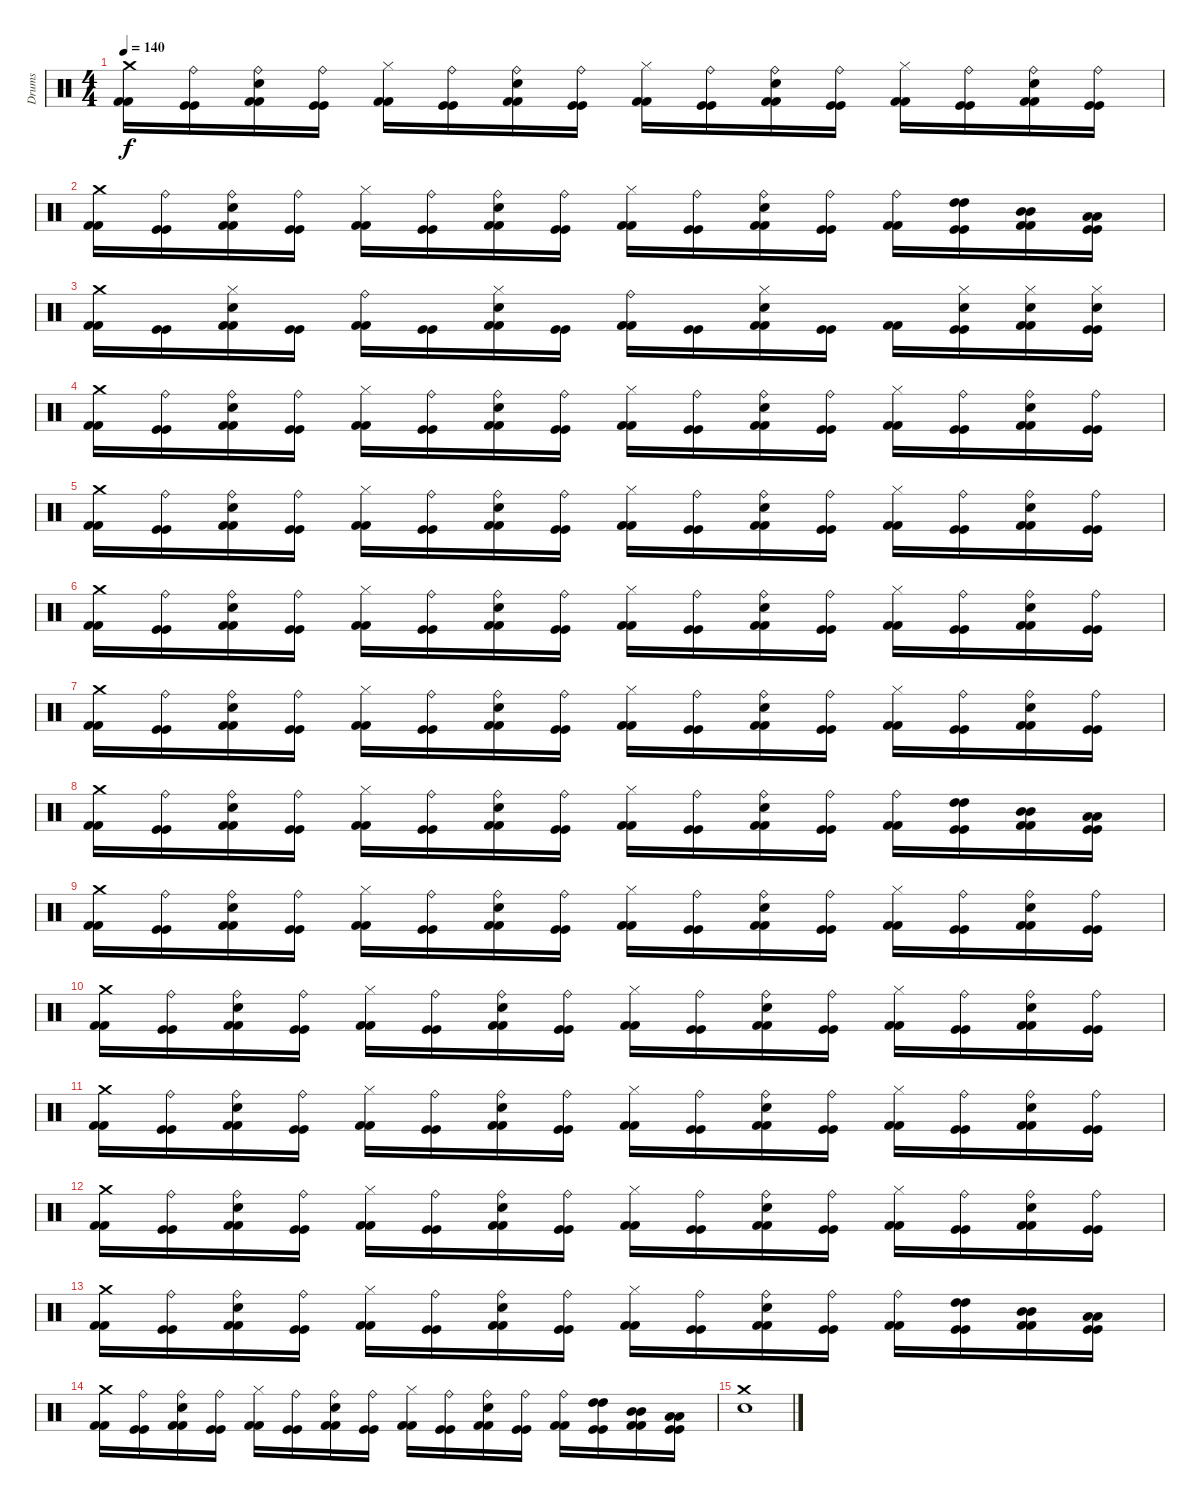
\track ("Drums" "Drums") {instrument percussion}
\staff {score}
\articulation defaults
\ts (4 4)
\tempo 140
\clef neutral
\ks c
("Crash medium (hit)" "Kick (hit) 2" "Kick (hit) 2").16{dy f} ("Ride (bell)" "Kick (hit)" "Kick (hit)").16 ("Ride (bell)" "Snare (hit) 2" "Kick (hit) 2" "Kick (hit) 2").16 ("Ride (bell)" "Kick (hit)" "Kick (hit)").16 ("Hi-Hat (closed)" "Kick (hit) 2" "Kick (hit) 2").16 ("Ride (bell)" "Kick (hit)" "Kick (hit)").16 ("Ride (bell)" "Snare (hit) 2" "Kick (hit) 2" "Kick (hit) 2").16 ("Ride (bell)" "Kick (hit)" "Kick (hit)").16 ("Hi-Hat (closed)" "Kick (hit) 2" "Kick (hit) 2").16 ("Ride (bell)" "Kick (hit)" "Kick (hit)").16 ("Ride (bell)" "Snare (hit) 2" "Kick (hit) 2" "Kick (hit) 2").16 ("Ride (bell)" "Kick (hit)" "Kick (hit)").16 ("Hi-Hat (closed)" "Kick (hit) 2" "Kick (hit) 2").16 ("Ride (bell)" "Kick (hit)" "Kick (hit)").16 ("Ride (bell)" "Snare (hit) 2" "Kick (hit) 2" "Kick (hit) 2").16 ("Ride (bell)" "Kick (hit)" "Kick (hit)").16 |
("Crash medium (hit)" "Kick (hit) 2" "Kick (hit) 2").16 ("Ride (bell)" "Kick (hit)" "Kick (hit)").16 ("Ride (bell)" "Snare (hit) 2" "Kick (hit) 2" "Kick (hit) 2").16 ("Ride (bell)" "Kick (hit)" "Kick (hit)").16 ("Hi-Hat (closed)" "Kick (hit) 2" "Kick (hit) 2").16 ("Ride (bell)" "Kick (hit)" "Kick (hit)").16 ("Ride (bell)" "Snare (hit) 2" "Kick (hit) 2" "Kick (hit) 2").16 ("Ride (bell)" "Kick (hit)" "Kick (hit)").16 ("Hi-Hat (closed)" "Kick (hit) 2" "Kick (hit) 2").16 ("Ride (bell)" "Kick (hit)" "Kick (hit)").16 ("Ride (bell)" "Snare (hit) 2" "Kick (hit) 2" "Kick (hit) 2").16 ("Ride (bell)" "Kick (hit)" "Kick (hit)").16 ("Ride (bell)" "Kick (hit) 2" "Kick (hit) 2").16 ("High Tom (hit)" "High Tom (hit)" "Kick (hit)" "Kick (hit)").16 ("Mid Tom (hit)" "Mid Tom (hit)" "Kick (hit) 2" "Kick (hit) 2").16 ("Low Tom (hit)" "Low Tom (hit)" "Kick (hit)" "Kick (hit)").16 |
("Crash medium (hit)" "Kick (hit) 2" "Kick (hit) 2").16 ("Kick (hit)" "Kick (hit)").16 ("Hi-Hat (closed)" "Snare (hit) 2" "Kick (hit) 2" "Kick (hit) 2").16 ("Kick (hit)" "Kick (hit)").16 ("Ride (bell)" "Kick (hit) 2" "Kick (hit) 2").16 ("Kick (hit)" "Kick (hit)").16 ("Hi-Hat (closed)" "Snare (hit) 2" "Kick (hit) 2" "Kick (hit) 2").16 ("Kick (hit)" "Kick (hit)").16 ("Ride (bell)" "Kick (hit) 2" "Kick (hit) 2").16 ("Kick (hit)" "Kick (hit)").16 ("Hi-Hat (closed)" "Snare (hit) 2" "Kick (hit) 2" "Kick (hit) 2").16 ("Kick (hit)" "Kick (hit)").16 ("Kick (hit) 2" "Kick (hit) 2").16 ("Hi-Hat (closed)" "Snare (hit) 2" "Kick (hit)" "Kick (hit)").16 ("Hi-Hat (closed)" "Snare (hit) 2" "Kick (hit) 2" "Kick (hit) 2").16 ("Hi-Hat (closed)" "Snare (hit) 2" "Kick (hit)" "Kick (hit)").16 |
("Crash medium (hit)" "Kick (hit) 2" "Kick (hit) 2").16 ("Ride (bell)" "Kick (hit)" "Kick (hit)").16 ("Ride (bell)" "Snare (hit) 2" "Kick (hit) 2" "Kick (hit) 2").16 ("Ride (bell)" "Kick (hit)" "Kick (hit)").16 ("Hi-Hat (closed)" "Kick (hit) 2" "Kick (hit) 2").16 ("Ride (bell)" "Kick (hit)" "Kick (hit)").16 ("Ride (bell)" "Snare (hit) 2" "Kick (hit) 2" "Kick (hit) 2").16 ("Ride (bell)" "Kick (hit)" "Kick (hit)").16 ("Hi-Hat (closed)" "Kick (hit) 2" "Kick (hit) 2").16 ("Ride (bell)" "Kick (hit)" "Kick (hit)").16 ("Ride (bell)" "Snare (hit) 2" "Kick (hit) 2" "Kick (hit) 2").16 ("Ride (bell)" "Kick (hit)" "Kick (hit)").16 ("Hi-Hat (closed)" "Kick (hit) 2" "Kick (hit) 2").16 ("Ride (bell)" "Kick (hit)" "Kick (hit)").16 ("Ride (bell)" "Snare (hit) 2" "Kick (hit) 2" "Kick (hit) 2").16 ("Ride (bell)" "Kick (hit)" "Kick (hit)").16 |
("Crash medium (hit)" "Kick (hit) 2" "Kick (hit) 2").16 ("Ride (bell)" "Kick (hit)" "Kick (hit)").16 ("Ride (bell)" "Snare (hit) 2" "Kick (hit) 2" "Kick (hit) 2").16 ("Ride (bell)" "Kick (hit)" "Kick (hit)").16 ("Hi-Hat (closed)" "Kick (hit) 2" "Kick (hit) 2").16 ("Ride (bell)" "Kick (hit)" "Kick (hit)").16 ("Ride (bell)" "Snare (hit) 2" "Kick (hit) 2" "Kick (hit) 2").16 ("Ride (bell)" "Kick (hit)" "Kick (hit)").16 ("Hi-Hat (closed)" "Kick (hit) 2" "Kick (hit) 2").16 ("Ride (bell)" "Kick (hit)" "Kick (hit)").16 ("Ride (bell)" "Snare (hit) 2" "Kick (hit) 2" "Kick (hit) 2").16 ("Ride (bell)" "Kick (hit)" "Kick (hit)").16 ("Hi-Hat (closed)" "Kick (hit) 2" "Kick (hit) 2").16 ("Ride (bell)" "Kick (hit)" "Kick (hit)").16 ("Ride (bell)" "Snare (hit) 2" "Kick (hit) 2" "Kick (hit) 2").16 ("Ride (bell)" "Kick (hit)" "Kick (hit)").16 |
("Crash medium (hit)" "Kick (hit) 2" "Kick (hit) 2").16 ("Ride (bell)" "Kick (hit)" "Kick (hit)").16 ("Ride (bell)" "Snare (hit) 2" "Kick (hit) 2" "Kick (hit) 2").16 ("Ride (bell)" "Kick (hit)" "Kick (hit)").16 ("Hi-Hat (closed)" "Kick (hit) 2" "Kick (hit) 2").16 ("Ride (bell)" "Kick (hit)" "Kick (hit)").16 ("Ride (bell)" "Snare (hit) 2" "Kick (hit) 2" "Kick (hit) 2").16 ("Ride (bell)" "Kick (hit)" "Kick (hit)").16 ("Hi-Hat (closed)" "Kick (hit) 2" "Kick (hit) 2").16 ("Ride (bell)" "Kick (hit)" "Kick (hit)").16 ("Ride (bell)" "Snare (hit) 2" "Kick (hit) 2" "Kick (hit) 2").16 ("Ride (bell)" "Kick (hit)" "Kick (hit)").16 ("Hi-Hat (closed)" "Kick (hit) 2" "Kick (hit) 2").16 ("Ride (bell)" "Kick (hit)" "Kick (hit)").16 ("Ride (bell)" "Snare (hit) 2" "Kick (hit) 2" "Kick (hit) 2").16 ("Ride (bell)" "Kick (hit)" "Kick (hit)").16 |
("Crash medium (hit)" "Kick (hit) 2" "Kick (hit) 2").16 ("Ride (bell)" "Kick (hit)" "Kick (hit)").16 ("Ride (bell)" "Snare (hit) 2" "Kick (hit) 2" "Kick (hit) 2").16 ("Ride (bell)" "Kick (hit)" "Kick (hit)").16 ("Hi-Hat (closed)" "Kick (hit) 2" "Kick (hit) 2").16 ("Ride (bell)" "Kick (hit)" "Kick (hit)").16 ("Ride (bell)" "Snare (hit) 2" "Kick (hit) 2" "Kick (hit) 2").16 ("Ride (bell)" "Kick (hit)" "Kick (hit)").16 ("Hi-Hat (closed)" "Kick (hit) 2" "Kick (hit) 2").16 ("Ride (bell)" "Kick (hit)" "Kick (hit)").16 ("Ride (bell)" "Snare (hit) 2" "Kick (hit) 2" "Kick (hit) 2").16 ("Ride (bell)" "Kick (hit)" "Kick (hit)").16 ("Hi-Hat (closed)" "Kick (hit) 2" "Kick (hit) 2").16 ("Ride (bell)" "Kick (hit)" "Kick (hit)").16 ("Ride (bell)" "Snare (hit) 2" "Kick (hit) 2" "Kick (hit) 2").16 ("Ride (bell)" "Kick (hit)" "Kick (hit)").16 |
("Crash medium (hit)" "Kick (hit) 2" "Kick (hit) 2").16 ("Ride (bell)" "Kick (hit)" "Kick (hit)").16 ("Ride (bell)" "Snare (hit) 2" "Kick (hit) 2" "Kick (hit) 2").16 ("Ride (bell)" "Kick (hit)" "Kick (hit)").16 ("Hi-Hat (closed)" "Kick (hit) 2" "Kick (hit) 2").16 ("Ride (bell)" "Kick (hit)" "Kick (hit)").16 ("Ride (bell)" "Snare (hit) 2" "Kick (hit) 2" "Kick (hit) 2").16 ("Ride (bell)" "Kick (hit)" "Kick (hit)").16 ("Hi-Hat (closed)" "Kick (hit) 2" "Kick (hit) 2").16 ("Ride (bell)" "Kick (hit)" "Kick (hit)").16 ("Ride (bell)" "Snare (hit) 2" "Kick (hit) 2" "Kick (hit) 2").16 ("Ride (bell)" "Kick (hit)" "Kick (hit)").16 ("Ride (bell)" "Kick (hit) 2" "Kick (hit) 2").16 ("High Tom (hit)" "High Tom (hit)" "Kick (hit)" "Kick (hit)").16 ("Mid Tom (hit)" "Mid Tom (hit)" "Kick (hit) 2" "Kick (hit) 2").16 ("Low Tom (hit)" "Low Tom (hit)" "Kick (hit)" "Kick (hit)").16 |
("Crash medium (hit)" "Kick (hit) 2" "Kick (hit) 2").16 ("Ride (bell)" "Kick (hit)" "Kick (hit)").16 ("Ride (bell)" "Snare (hit) 2" "Kick (hit) 2" "Kick (hit) 2").16 ("Ride (bell)" "Kick (hit)" "Kick (hit)").16 ("Hi-Hat (closed)" "Kick (hit) 2" "Kick (hit) 2").16 ("Ride (bell)" "Kick (hit)" "Kick (hit)").16 ("Ride (bell)" "Snare (hit) 2" "Kick (hit) 2" "Kick (hit) 2").16 ("Ride (bell)" "Kick (hit)" "Kick (hit)").16 ("Hi-Hat (closed)" "Kick (hit) 2" "Kick (hit) 2").16 ("Ride (bell)" "Kick (hit)" "Kick (hit)").16 ("Ride (bell)" "Snare (hit) 2" "Kick (hit) 2" "Kick (hit) 2").16 ("Ride (bell)" "Kick (hit)" "Kick (hit)").16 ("Hi-Hat (closed)" "Kick (hit) 2" "Kick (hit) 2").16 ("Ride (bell)" "Kick (hit)" "Kick (hit)").16 ("Ride (bell)" "Snare (hit) 2" "Kick (hit) 2" "Kick (hit) 2").16 ("Ride (bell)" "Kick (hit)" "Kick (hit)").16 |
("Crash medium (hit)" "Kick (hit) 2" "Kick (hit) 2").16 ("Ride (bell)" "Kick (hit)" "Kick (hit)").16 ("Ride (bell)" "Snare (hit) 2" "Kick (hit) 2" "Kick (hit) 2").16 ("Ride (bell)" "Kick (hit)" "Kick (hit)").16 ("Hi-Hat (closed)" "Kick (hit) 2" "Kick (hit) 2").16 ("Ride (bell)" "Kick (hit)" "Kick (hit)").16 ("Ride (bell)" "Snare (hit) 2" "Kick (hit) 2" "Kick (hit) 2").16 ("Ride (bell)" "Kick (hit)" "Kick (hit)").16 ("Hi-Hat (closed)" "Kick (hit) 2" "Kick (hit) 2").16 ("Ride (bell)" "Kick (hit)" "Kick (hit)").16 ("Ride (bell)" "Snare (hit) 2" "Kick (hit) 2" "Kick (hit) 2").16 ("Ride (bell)" "Kick (hit)" "Kick (hit)").16 ("Hi-Hat (closed)" "Kick (hit) 2" "Kick (hit) 2").16 ("Ride (bell)" "Kick (hit)" "Kick (hit)").16 ("Ride (bell)" "Snare (hit) 2" "Kick (hit) 2" "Kick (hit) 2").16 ("Ride (bell)" "Kick (hit)" "Kick (hit)").16 |
("Crash medium (hit)" "Kick (hit) 2" "Kick (hit) 2").16 ("Ride (bell)" "Kick (hit)" "Kick (hit)").16 ("Ride (bell)" "Snare (hit) 2" "Kick (hit) 2" "Kick (hit) 2").16 ("Ride (bell)" "Kick (hit)" "Kick (hit)").16 ("Hi-Hat (closed)" "Kick (hit) 2" "Kick (hit) 2").16 ("Ride (bell)" "Kick (hit)" "Kick (hit)").16 ("Ride (bell)" "Snare (hit) 2" "Kick (hit) 2" "Kick (hit) 2").16 ("Ride (bell)" "Kick (hit)" "Kick (hit)").16 ("Hi-Hat (closed)" "Kick (hit) 2" "Kick (hit) 2").16 ("Ride (bell)" "Kick (hit)" "Kick (hit)").16 ("Ride (bell)" "Snare (hit) 2" "Kick (hit) 2" "Kick (hit) 2").16 ("Ride (bell)" "Kick (hit)" "Kick (hit)").16 ("Hi-Hat (closed)" "Kick (hit) 2" "Kick (hit) 2").16 ("Ride (bell)" "Kick (hit)" "Kick (hit)").16 ("Ride (bell)" "Snare (hit) 2" "Kick (hit) 2" "Kick (hit) 2").16 ("Ride (bell)" "Kick (hit)" "Kick (hit)").16 |
("Crash medium (hit)" "Kick (hit) 2" "Kick (hit) 2").16 ("Ride (bell)" "Kick (hit)" "Kick (hit)").16 ("Ride (bell)" "Snare (hit) 2" "Kick (hit) 2" "Kick (hit) 2").16 ("Ride (bell)" "Kick (hit)" "Kick (hit)").16 ("Hi-Hat (closed)" "Kick (hit) 2" "Kick (hit) 2").16 ("Ride (bell)" "Kick (hit)" "Kick (hit)").16 ("Ride (bell)" "Snare (hit) 2" "Kick (hit) 2" "Kick (hit) 2").16 ("Ride (bell)" "Kick (hit)" "Kick (hit)").16 ("Hi-Hat (closed)" "Kick (hit) 2" "Kick (hit) 2").16 ("Ride (bell)" "Kick (hit)" "Kick (hit)").16 ("Ride (bell)" "Snare (hit) 2" "Kick (hit) 2" "Kick (hit) 2").16 ("Ride (bell)" "Kick (hit)" "Kick (hit)").16 ("Hi-Hat (closed)" "Kick (hit) 2" "Kick (hit) 2").16 ("Ride (bell)" "Kick (hit)" "Kick (hit)").16 ("Ride (bell)" "Snare (hit) 2" "Kick (hit) 2" "Kick (hit) 2").16 ("Ride (bell)" "Kick (hit)" "Kick (hit)").16 |
("Crash medium (hit)" "Kick (hit) 2" "Kick (hit) 2").16 ("Ride (bell)" "Kick (hit)" "Kick (hit)").16 ("Ride (bell)" "Snare (hit) 2" "Kick (hit) 2" "Kick (hit) 2").16 ("Ride (bell)" "Kick (hit)" "Kick (hit)").16 ("Hi-Hat (closed)" "Kick (hit) 2" "Kick (hit) 2").16 ("Ride (bell)" "Kick (hit)" "Kick (hit)").16 ("Ride (bell)" "Snare (hit) 2" "Kick (hit) 2" "Kick (hit) 2").16 ("Ride (bell)" "Kick (hit)" "Kick (hit)").16 ("Hi-Hat (closed)" "Kick (hit) 2" "Kick (hit) 2").16 ("Ride (bell)" "Kick (hit)" "Kick (hit)").16 ("Ride (bell)" "Snare (hit) 2" "Kick (hit) 2" "Kick (hit) 2").16 ("Ride (bell)" "Kick (hit)" "Kick (hit)").16 ("Ride (bell)" "Kick (hit) 2" "Kick (hit) 2").16 ("High Tom (hit)" "High Tom (hit)" "Kick (hit)" "Kick (hit)").16 ("Mid Tom (hit)" "Mid Tom (hit)" "Kick (hit) 2" "Kick (hit) 2").16 ("Low Tom (hit)" "Low Tom (hit)" "Kick (hit)" "Kick (hit)").16 |
("Crash medium (hit)" "Kick (hit) 2" "Kick (hit) 2").16 ("Ride (bell)" "Kick (hit)" "Kick (hit)").16 ("Ride (bell)" "Snare (hit) 2" "Kick (hit) 2" "Kick (hit) 2").16 ("Ride (bell)" "Kick (hit)" "Kick (hit)").16 ("Hi-Hat (closed)" "Kick (hit) 2" "Kick (hit) 2").16 ("Ride (bell)" "Kick (hit)" "Kick (hit)").16 ("Ride (bell)" "Snare (hit) 2" "Kick (hit) 2" "Kick (hit) 2").16 ("Ride (bell)" "Kick (hit)" "Kick (hit)").16 ("Hi-Hat (closed)" "Kick (hit) 2" "Kick (hit) 2").16 ("Ride (bell)" "Kick (hit)" "Kick (hit)").16 ("Ride (bell)" "Snare (hit) 2" "Kick (hit) 2" "Kick (hit) 2").16 ("Ride (bell)" "Kick (hit)" "Kick (hit)").16 ("Ride (bell)" "Kick (hit) 2" "Kick (hit) 2").16 ("High Tom (hit)" "High Tom (hit)" "Kick (hit)" "Kick (hit)").16 ("Mid Tom (hit)" "Mid Tom (hit)" "Kick (hit) 2" "Kick (hit) 2").16 ("Low Tom (hit)" "Low Tom (hit)" "Kick (hit)" "Kick (hit)").16 |
("Crash medium (hit)" "Snare (hit) 2").1
